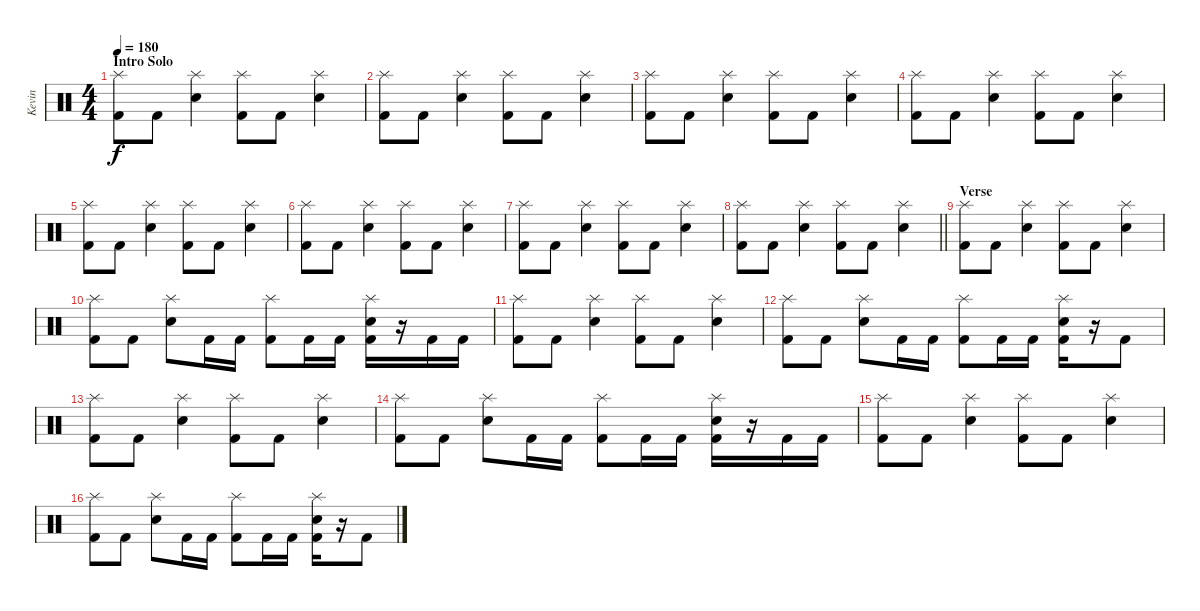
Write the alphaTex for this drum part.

\track ("Kevin" "Kevin") {instrument percussion}
\staff {score}
\articulation defaults
\ts (4 4)
\section ("" "Intro Solo")
\tempo 180
\clef neutral
\ks c
("Splash (hit)" "Kick (hit) 2").8{dy f} "Kick (hit) 2".8 ("Splash (hit)" "Electric Snare (hit)").4 ("Splash (hit)" "Kick (hit) 2").8 "Kick (hit) 2".8 ("Splash (hit)" "Electric Snare (hit)").4 |
("Splash (hit)" "Kick (hit) 2").8 "Kick (hit) 2".8 ("Splash (hit)" "Electric Snare (hit)").4 ("Splash (hit)" "Kick (hit) 2").8 "Kick (hit) 2".8 ("Splash (hit)" "Electric Snare (hit)").4 |
("Splash (hit)" "Kick (hit) 2").8 "Kick (hit) 2".8 ("Splash (hit)" "Electric Snare (hit)").4 ("Splash (hit)" "Kick (hit) 2").8 "Kick (hit) 2".8 ("Splash (hit)" "Electric Snare (hit)").4 |
("Splash (hit)" "Kick (hit) 2").8 "Kick (hit) 2".8 ("Splash (hit)" "Electric Snare (hit)").4 ("Splash (hit)" "Kick (hit) 2").8 "Kick (hit) 2".8 ("Splash (hit)" "Electric Snare (hit)").4 |
("Splash (hit)" "Kick (hit) 2").8 "Kick (hit) 2".8 ("Splash (hit)" "Electric Snare (hit)").4 ("Splash (hit)" "Kick (hit) 2").8 "Kick (hit) 2".8 ("Splash (hit)" "Electric Snare (hit)").4 |
("Splash (hit)" "Kick (hit) 2").8 "Kick (hit) 2".8 ("Splash (hit)" "Electric Snare (hit)").4 ("Splash (hit)" "Kick (hit) 2").8 "Kick (hit) 2".8 ("Splash (hit)" "Electric Snare (hit)").4 |
("Splash (hit)" "Kick (hit) 2").8 "Kick (hit) 2".8 ("Splash (hit)" "Electric Snare (hit)").4 ("Splash (hit)" "Kick (hit) 2").8 "Kick (hit) 2".8 ("Splash (hit)" "Electric Snare (hit)").4 |
\barLineRight lightlight
("Splash (hit)" "Kick (hit) 2").8 "Kick (hit) 2".8 ("Splash (hit)" "Electric Snare (hit)").4 ("Splash (hit)" "Kick (hit) 2").8 "Kick (hit) 2".8 ("Splash (hit)" "Electric Snare (hit)").4 |
\section ("" "Verse")
("Splash (hit)" "Kick (hit) 2").8 "Kick (hit) 2".8 ("Splash (hit)" "Electric Snare (hit)").4 ("Splash (hit)" "Kick (hit) 2").8 "Kick (hit) 2".8 ("Splash (hit)" "Electric Snare (hit)").4 |
("Splash (hit)" "Kick (hit) 2").8 "Kick (hit) 2".8 ("Splash (hit)" "Electric Snare (hit)").8 "Kick (hit) 2".16 "Kick (hit) 2".16 ("Splash (hit)" "Kick (hit) 2").8 "Kick (hit) 2".16 "Kick (hit) 2".16 ("Splash (hit)" "Electric Snare (hit)" "Kick (hit) 2").16 r.16 "Kick (hit) 2".16 "Kick (hit) 2".16 |
("Splash (hit)" "Kick (hit) 2").8 "Kick (hit) 2".8 ("Splash (hit)" "Electric Snare (hit)").4 ("Splash (hit)" "Kick (hit) 2").8 "Kick (hit) 2".8 ("Splash (hit)" "Electric Snare (hit)").4 |
("Splash (hit)" "Kick (hit) 2").8 "Kick (hit) 2".8 ("Splash (hit)" "Electric Snare (hit)").8 "Kick (hit) 2".16 "Kick (hit) 2".16 ("Splash (hit)" "Kick (hit) 2").8 "Kick (hit) 2".16 "Kick (hit) 2".16 ("Splash (hit)" "Electric Snare (hit)" "Kick (hit) 2").16 r.16 "Kick (hit) 2".8 |
("Splash (hit)" "Kick (hit) 2").8 "Kick (hit) 2".8 ("Splash (hit)" "Electric Snare (hit)").4 ("Splash (hit)" "Kick (hit) 2").8 "Kick (hit) 2".8 ("Splash (hit)" "Electric Snare (hit)").4 |
("Splash (hit)" "Kick (hit) 2").8 "Kick (hit) 2".8 ("Splash (hit)" "Electric Snare (hit)").8 "Kick (hit) 2".16 "Kick (hit) 2".16 ("Splash (hit)" "Kick (hit) 2").8 "Kick (hit) 2".16 "Kick (hit) 2".16 ("Splash (hit)" "Electric Snare (hit)" "Kick (hit) 2").16 r.16 "Kick (hit) 2".16 "Kick (hit) 2".16 |
("Splash (hit)" "Kick (hit) 2").8 "Kick (hit) 2".8 ("Splash (hit)" "Electric Snare (hit)").4 ("Splash (hit)" "Kick (hit) 2").8 "Kick (hit) 2".8 ("Splash (hit)" "Electric Snare (hit)").4 |
("Splash (hit)" "Kick (hit) 2").8 "Kick (hit) 2".8 ("Splash (hit)" "Electric Snare (hit)").8 "Kick (hit) 2".16 "Kick (hit) 2".16 ("Splash (hit)" "Kick (hit) 2").8 "Kick (hit) 2".16 "Kick (hit) 2".16 ("Splash (hit)" "Electric Snare (hit)" "Kick (hit) 2").16 r.16 "Kick (hit) 2".8
